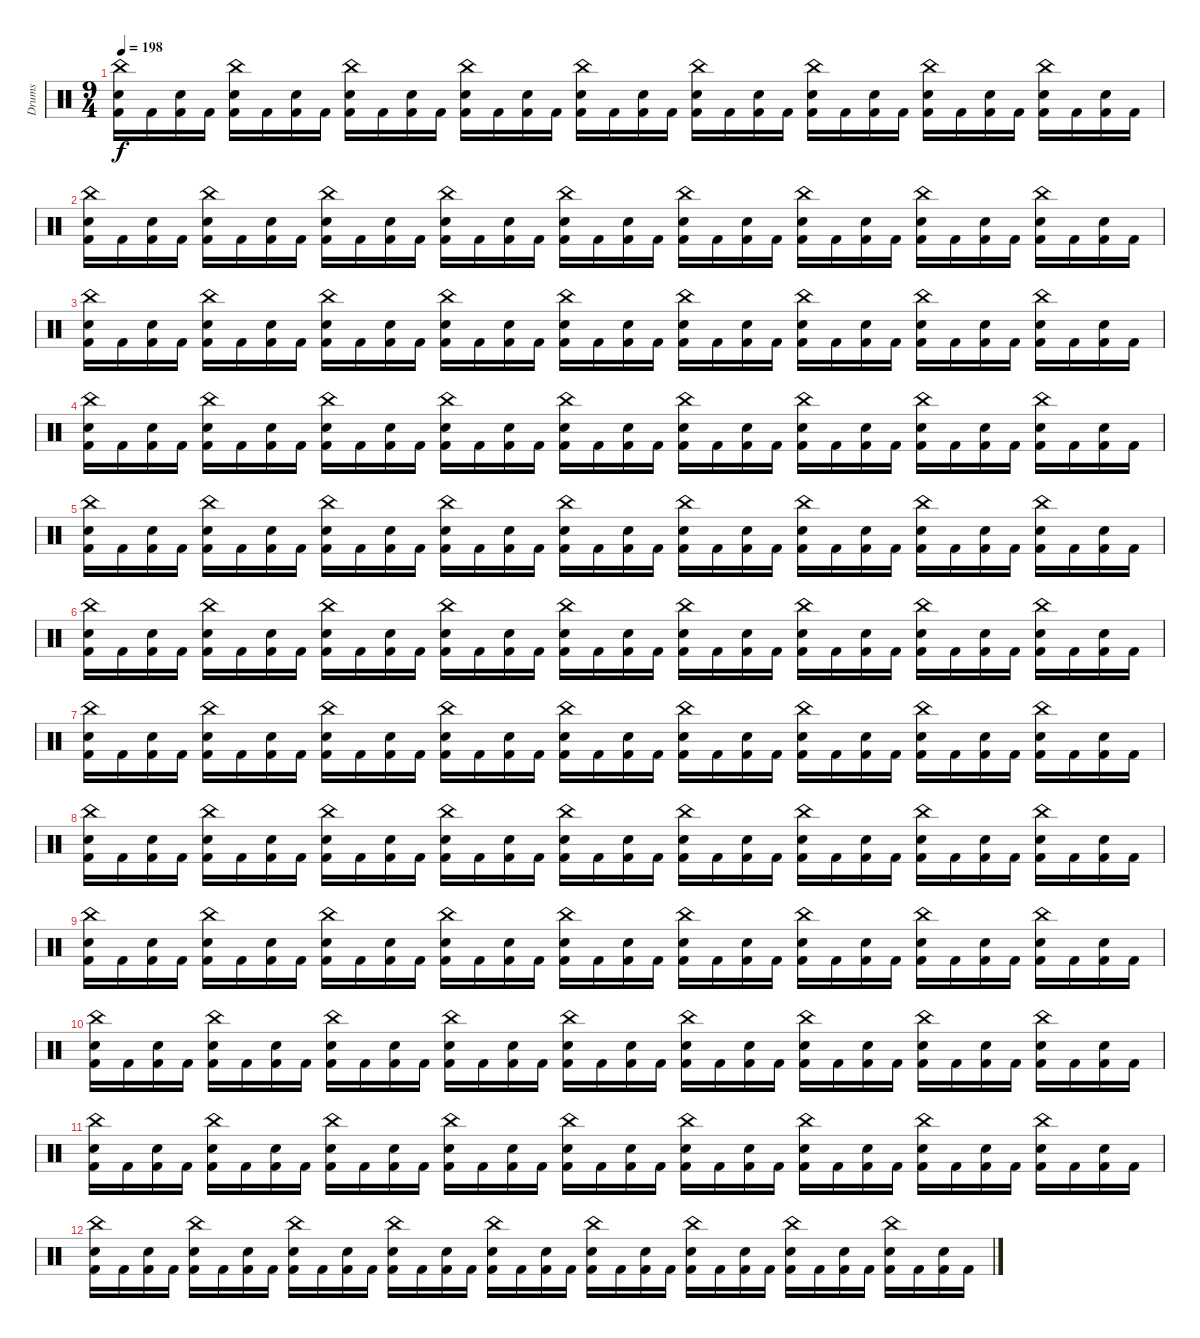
\track ("Drums" "Drums") {instrument percussion}
\staff {score}
\articulation defaults
\ts (9 4)
\tempo 198
\clef neutral
\ks c
("Kick (hit) 2" "Snare (hit) 2" "China (hit)").16{dy f} "Kick (hit) 2".16 ("Kick (hit) 2" "Snare (hit) 2").16 "Kick (hit) 2".16 ("Kick (hit) 2" "Snare (hit) 2" "China (hit)").16 "Kick (hit) 2".16 ("Kick (hit) 2" "Snare (hit) 2").16 "Kick (hit) 2".16 ("Kick (hit) 2" "Snare (hit) 2" "China (hit)").16 "Kick (hit) 2".16 ("Kick (hit) 2" "Snare (hit) 2").16 "Kick (hit) 2".16 ("Kick (hit) 2" "Snare (hit) 2" "China (hit)").16 "Kick (hit) 2".16 ("Kick (hit) 2" "Snare (hit) 2").16 "Kick (hit) 2".16 ("Kick (hit) 2" "Snare (hit) 2" "China (hit)").16 "Kick (hit) 2".16 ("Kick (hit) 2" "Snare (hit) 2").16 "Kick (hit) 2".16 ("Kick (hit) 2" "Snare (hit) 2" "China (hit)").16 "Kick (hit) 2".16 ("Kick (hit) 2" "Snare (hit) 2").16 "Kick (hit) 2".16 ("Kick (hit) 2" "Snare (hit) 2" "China (hit)").16 "Kick (hit) 2".16 ("Kick (hit) 2" "Snare (hit) 2").16 "Kick (hit) 2".16 ("Kick (hit) 2" "Snare (hit) 2" "China (hit)").16 "Kick (hit) 2".16 ("Kick (hit) 2" "Snare (hit) 2").16 "Kick (hit) 2".16 ("Kick (hit) 2" "Snare (hit) 2" "China (hit)").16 "Kick (hit) 2".16 ("Kick (hit) 2" "Snare (hit) 2").16 "Kick (hit) 2".16 |
("Kick (hit) 2" "Snare (hit) 2" "China (hit)").16 "Kick (hit) 2".16 ("Kick (hit) 2" "Snare (hit) 2").16 "Kick (hit) 2".16 ("Kick (hit) 2" "Snare (hit) 2" "China (hit)").16 "Kick (hit) 2".16 ("Kick (hit) 2" "Snare (hit) 2").16 "Kick (hit) 2".16 ("Kick (hit) 2" "Snare (hit) 2" "China (hit)").16 "Kick (hit) 2".16 ("Kick (hit) 2" "Snare (hit) 2").16 "Kick (hit) 2".16 ("Kick (hit) 2" "Snare (hit) 2" "China (hit)").16 "Kick (hit) 2".16 ("Kick (hit) 2" "Snare (hit) 2").16 "Kick (hit) 2".16 ("Kick (hit) 2" "Snare (hit) 2" "China (hit)").16 "Kick (hit) 2".16 ("Kick (hit) 2" "Snare (hit) 2").16 "Kick (hit) 2".16 ("Kick (hit) 2" "Snare (hit) 2" "China (hit)").16 "Kick (hit) 2".16 ("Kick (hit) 2" "Snare (hit) 2").16 "Kick (hit) 2".16 ("Kick (hit) 2" "Snare (hit) 2" "China (hit)").16 "Kick (hit) 2".16 ("Kick (hit) 2" "Snare (hit) 2").16 "Kick (hit) 2".16 ("Kick (hit) 2" "Snare (hit) 2" "China (hit)").16 "Kick (hit) 2".16 ("Kick (hit) 2" "Snare (hit) 2").16 "Kick (hit) 2".16 ("Kick (hit) 2" "Snare (hit) 2" "China (hit)").16 "Kick (hit) 2".16 ("Kick (hit) 2" "Snare (hit) 2").16 "Kick (hit) 2".16 |
("Kick (hit) 2" "Snare (hit) 2" "China (hit)").16 "Kick (hit) 2".16 ("Kick (hit) 2" "Snare (hit) 2").16 "Kick (hit) 2".16 ("Kick (hit) 2" "Snare (hit) 2" "China (hit)").16 "Kick (hit) 2".16 ("Kick (hit) 2" "Snare (hit) 2").16 "Kick (hit) 2".16 ("Kick (hit) 2" "Snare (hit) 2" "China (hit)").16 "Kick (hit) 2".16 ("Kick (hit) 2" "Snare (hit) 2").16 "Kick (hit) 2".16 ("Kick (hit) 2" "Snare (hit) 2" "China (hit)").16 "Kick (hit) 2".16 ("Kick (hit) 2" "Snare (hit) 2").16 "Kick (hit) 2".16 ("Kick (hit) 2" "Snare (hit) 2" "China (hit)").16 "Kick (hit) 2".16 ("Kick (hit) 2" "Snare (hit) 2").16 "Kick (hit) 2".16 ("Kick (hit) 2" "Snare (hit) 2" "China (hit)").16 "Kick (hit) 2".16 ("Kick (hit) 2" "Snare (hit) 2").16 "Kick (hit) 2".16 ("Kick (hit) 2" "Snare (hit) 2" "China (hit)").16 "Kick (hit) 2".16 ("Kick (hit) 2" "Snare (hit) 2").16 "Kick (hit) 2".16 ("Kick (hit) 2" "Snare (hit) 2" "China (hit)").16 "Kick (hit) 2".16 ("Kick (hit) 2" "Snare (hit) 2").16 "Kick (hit) 2".16 ("Kick (hit) 2" "Snare (hit) 2" "China (hit)").16 "Kick (hit) 2".16 ("Kick (hit) 2" "Snare (hit) 2").16 "Kick (hit) 2".16 |
("Kick (hit) 2" "Snare (hit) 2" "China (hit)").16 "Kick (hit) 2".16 ("Kick (hit) 2" "Snare (hit) 2").16 "Kick (hit) 2".16 ("Kick (hit) 2" "Snare (hit) 2" "China (hit)").16 "Kick (hit) 2".16 ("Kick (hit) 2" "Snare (hit) 2").16 "Kick (hit) 2".16 ("Kick (hit) 2" "Snare (hit) 2" "China (hit)").16 "Kick (hit) 2".16 ("Kick (hit) 2" "Snare (hit) 2").16 "Kick (hit) 2".16 ("Kick (hit) 2" "Snare (hit) 2" "China (hit)").16 "Kick (hit) 2".16 ("Kick (hit) 2" "Snare (hit) 2").16 "Kick (hit) 2".16 ("Kick (hit) 2" "Snare (hit) 2" "China (hit)").16 "Kick (hit) 2".16 ("Kick (hit) 2" "Snare (hit) 2").16 "Kick (hit) 2".16 ("Kick (hit) 2" "Snare (hit) 2" "China (hit)").16 "Kick (hit) 2".16 ("Kick (hit) 2" "Snare (hit) 2").16 "Kick (hit) 2".16 ("Kick (hit) 2" "Snare (hit) 2" "China (hit)").16 "Kick (hit) 2".16 ("Kick (hit) 2" "Snare (hit) 2").16 "Kick (hit) 2".16 ("Kick (hit) 2" "Snare (hit) 2" "China (hit)").16 "Kick (hit) 2".16 ("Kick (hit) 2" "Snare (hit) 2").16 "Kick (hit) 2".16 ("Kick (hit) 2" "Snare (hit) 2" "China (hit)").16 "Kick (hit) 2".16 ("Kick (hit) 2" "Snare (hit) 2").16 "Kick (hit) 2".16 |
("Kick (hit) 2" "Snare (hit) 2" "China (hit)").16 "Kick (hit) 2".16 ("Kick (hit) 2" "Snare (hit) 2").16 "Kick (hit) 2".16 ("Kick (hit) 2" "Snare (hit) 2" "China (hit)").16 "Kick (hit) 2".16 ("Kick (hit) 2" "Snare (hit) 2").16 "Kick (hit) 2".16 ("Kick (hit) 2" "Snare (hit) 2" "China (hit)").16 "Kick (hit) 2".16 ("Kick (hit) 2" "Snare (hit) 2").16 "Kick (hit) 2".16 ("Kick (hit) 2" "Snare (hit) 2" "China (hit)").16 "Kick (hit) 2".16 ("Kick (hit) 2" "Snare (hit) 2").16 "Kick (hit) 2".16 ("Kick (hit) 2" "Snare (hit) 2" "China (hit)").16 "Kick (hit) 2".16 ("Kick (hit) 2" "Snare (hit) 2").16 "Kick (hit) 2".16 ("Kick (hit) 2" "Snare (hit) 2" "China (hit)").16 "Kick (hit) 2".16 ("Kick (hit) 2" "Snare (hit) 2").16 "Kick (hit) 2".16 ("Kick (hit) 2" "Snare (hit) 2" "China (hit)").16 "Kick (hit) 2".16 ("Kick (hit) 2" "Snare (hit) 2").16 "Kick (hit) 2".16 ("Kick (hit) 2" "Snare (hit) 2" "China (hit)").16 "Kick (hit) 2".16 ("Kick (hit) 2" "Snare (hit) 2").16 "Kick (hit) 2".16 ("Kick (hit) 2" "Snare (hit) 2" "China (hit)").16 "Kick (hit) 2".16 ("Kick (hit) 2" "Snare (hit) 2").16 "Kick (hit) 2".16 |
("Kick (hit) 2" "Snare (hit) 2" "China (hit)").16 "Kick (hit) 2".16 ("Kick (hit) 2" "Snare (hit) 2").16 "Kick (hit) 2".16 ("Kick (hit) 2" "Snare (hit) 2" "China (hit)").16 "Kick (hit) 2".16 ("Kick (hit) 2" "Snare (hit) 2").16 "Kick (hit) 2".16 ("Kick (hit) 2" "Snare (hit) 2" "China (hit)").16 "Kick (hit) 2".16 ("Kick (hit) 2" "Snare (hit) 2").16 "Kick (hit) 2".16 ("Kick (hit) 2" "Snare (hit) 2" "China (hit)").16 "Kick (hit) 2".16 ("Kick (hit) 2" "Snare (hit) 2").16 "Kick (hit) 2".16 ("Kick (hit) 2" "Snare (hit) 2" "China (hit)").16 "Kick (hit) 2".16 ("Kick (hit) 2" "Snare (hit) 2").16 "Kick (hit) 2".16 ("Kick (hit) 2" "Snare (hit) 2" "China (hit)").16 "Kick (hit) 2".16 ("Kick (hit) 2" "Snare (hit) 2").16 "Kick (hit) 2".16 ("Kick (hit) 2" "Snare (hit) 2" "China (hit)").16 "Kick (hit) 2".16 ("Kick (hit) 2" "Snare (hit) 2").16 "Kick (hit) 2".16 ("Kick (hit) 2" "Snare (hit) 2" "China (hit)").16 "Kick (hit) 2".16 ("Kick (hit) 2" "Snare (hit) 2").16 "Kick (hit) 2".16 ("Kick (hit) 2" "Snare (hit) 2" "China (hit)").16 "Kick (hit) 2".16 ("Kick (hit) 2" "Snare (hit) 2").16 "Kick (hit) 2".16 |
("Kick (hit) 2" "Snare (hit) 2" "China (hit)").16 "Kick (hit) 2".16 ("Kick (hit) 2" "Snare (hit) 2").16 "Kick (hit) 2".16 ("Kick (hit) 2" "Snare (hit) 2" "China (hit)").16 "Kick (hit) 2".16 ("Kick (hit) 2" "Snare (hit) 2").16 "Kick (hit) 2".16 ("Kick (hit) 2" "Snare (hit) 2" "China (hit)").16 "Kick (hit) 2".16 ("Kick (hit) 2" "Snare (hit) 2").16 "Kick (hit) 2".16 ("Kick (hit) 2" "Snare (hit) 2" "China (hit)").16 "Kick (hit) 2".16 ("Kick (hit) 2" "Snare (hit) 2").16 "Kick (hit) 2".16 ("Kick (hit) 2" "Snare (hit) 2" "China (hit)").16 "Kick (hit) 2".16 ("Kick (hit) 2" "Snare (hit) 2").16 "Kick (hit) 2".16 ("Kick (hit) 2" "Snare (hit) 2" "China (hit)").16 "Kick (hit) 2".16 ("Kick (hit) 2" "Snare (hit) 2").16 "Kick (hit) 2".16 ("Kick (hit) 2" "Snare (hit) 2" "China (hit)").16 "Kick (hit) 2".16 ("Kick (hit) 2" "Snare (hit) 2").16 "Kick (hit) 2".16 ("Kick (hit) 2" "Snare (hit) 2" "China (hit)").16 "Kick (hit) 2".16 ("Kick (hit) 2" "Snare (hit) 2").16 "Kick (hit) 2".16 ("Kick (hit) 2" "Snare (hit) 2" "China (hit)").16 "Kick (hit) 2".16 ("Kick (hit) 2" "Snare (hit) 2").16 "Kick (hit) 2".16 |
("Kick (hit) 2" "Snare (hit) 2" "China (hit)").16 "Kick (hit) 2".16 ("Kick (hit) 2" "Snare (hit) 2").16 "Kick (hit) 2".16 ("Kick (hit) 2" "Snare (hit) 2" "China (hit)").16 "Kick (hit) 2".16 ("Kick (hit) 2" "Snare (hit) 2").16 "Kick (hit) 2".16 ("Kick (hit) 2" "Snare (hit) 2" "China (hit)").16 "Kick (hit) 2".16 ("Kick (hit) 2" "Snare (hit) 2").16 "Kick (hit) 2".16 ("Kick (hit) 2" "Snare (hit) 2" "China (hit)").16 "Kick (hit) 2".16 ("Kick (hit) 2" "Snare (hit) 2").16 "Kick (hit) 2".16 ("Kick (hit) 2" "Snare (hit) 2" "China (hit)").16 "Kick (hit) 2".16 ("Kick (hit) 2" "Snare (hit) 2").16 "Kick (hit) 2".16 ("Kick (hit) 2" "Snare (hit) 2" "China (hit)").16 "Kick (hit) 2".16 ("Kick (hit) 2" "Snare (hit) 2").16 "Kick (hit) 2".16 ("Kick (hit) 2" "Snare (hit) 2" "China (hit)").16 "Kick (hit) 2".16 ("Kick (hit) 2" "Snare (hit) 2").16 "Kick (hit) 2".16 ("Kick (hit) 2" "Snare (hit) 2" "China (hit)").16 "Kick (hit) 2".16 ("Kick (hit) 2" "Snare (hit) 2").16 "Kick (hit) 2".16 ("Kick (hit) 2" "Snare (hit) 2" "China (hit)").16 "Kick (hit) 2".16 ("Kick (hit) 2" "Snare (hit) 2").16 "Kick (hit) 2".16 |
("Kick (hit) 2" "Snare (hit) 2" "China (hit)").16 "Kick (hit) 2".16 ("Kick (hit) 2" "Snare (hit) 2").16 "Kick (hit) 2".16 ("Kick (hit) 2" "Snare (hit) 2" "China (hit)").16 "Kick (hit) 2".16 ("Kick (hit) 2" "Snare (hit) 2").16 "Kick (hit) 2".16 ("Kick (hit) 2" "Snare (hit) 2" "China (hit)").16 "Kick (hit) 2".16 ("Kick (hit) 2" "Snare (hit) 2").16 "Kick (hit) 2".16 ("Kick (hit) 2" "Snare (hit) 2" "China (hit)").16 "Kick (hit) 2".16 ("Kick (hit) 2" "Snare (hit) 2").16 "Kick (hit) 2".16 ("Kick (hit) 2" "Snare (hit) 2" "China (hit)").16 "Kick (hit) 2".16 ("Kick (hit) 2" "Snare (hit) 2").16 "Kick (hit) 2".16 ("Kick (hit) 2" "Snare (hit) 2" "China (hit)").16 "Kick (hit) 2".16 ("Kick (hit) 2" "Snare (hit) 2").16 "Kick (hit) 2".16 ("Kick (hit) 2" "Snare (hit) 2" "China (hit)").16 "Kick (hit) 2".16 ("Kick (hit) 2" "Snare (hit) 2").16 "Kick (hit) 2".16 ("Kick (hit) 2" "Snare (hit) 2" "China (hit)").16 "Kick (hit) 2".16 ("Kick (hit) 2" "Snare (hit) 2").16 "Kick (hit) 2".16 ("Kick (hit) 2" "Snare (hit) 2" "China (hit)").16 "Kick (hit) 2".16 ("Kick (hit) 2" "Snare (hit) 2").16 "Kick (hit) 2".16 |
("Kick (hit) 2" "Snare (hit) 2" "China (hit)").16 "Kick (hit) 2".16 ("Kick (hit) 2" "Snare (hit) 2").16 "Kick (hit) 2".16 ("Kick (hit) 2" "Snare (hit) 2" "China (hit)").16 "Kick (hit) 2".16 ("Kick (hit) 2" "Snare (hit) 2").16 "Kick (hit) 2".16 ("Kick (hit) 2" "Snare (hit) 2" "China (hit)").16 "Kick (hit) 2".16 ("Kick (hit) 2" "Snare (hit) 2").16 "Kick (hit) 2".16 ("Kick (hit) 2" "Snare (hit) 2" "China (hit)").16 "Kick (hit) 2".16 ("Kick (hit) 2" "Snare (hit) 2").16 "Kick (hit) 2".16 ("Kick (hit) 2" "Snare (hit) 2" "China (hit)").16 "Kick (hit) 2".16 ("Kick (hit) 2" "Snare (hit) 2").16 "Kick (hit) 2".16 ("Kick (hit) 2" "Snare (hit) 2" "China (hit)").16 "Kick (hit) 2".16 ("Kick (hit) 2" "Snare (hit) 2").16 "Kick (hit) 2".16 ("Kick (hit) 2" "Snare (hit) 2" "China (hit)").16 "Kick (hit) 2".16 ("Kick (hit) 2" "Snare (hit) 2").16 "Kick (hit) 2".16 ("Kick (hit) 2" "Snare (hit) 2" "China (hit)").16 "Kick (hit) 2".16 ("Kick (hit) 2" "Snare (hit) 2").16 "Kick (hit) 2".16 ("Kick (hit) 2" "Snare (hit) 2" "China (hit)").16 "Kick (hit) 2".16 ("Kick (hit) 2" "Snare (hit) 2").16 "Kick (hit) 2".16 |
("Kick (hit) 2" "Snare (hit) 2" "China (hit)").16 "Kick (hit) 2".16 ("Kick (hit) 2" "Snare (hit) 2").16 "Kick (hit) 2".16 ("Kick (hit) 2" "Snare (hit) 2" "China (hit)").16 "Kick (hit) 2".16 ("Kick (hit) 2" "Snare (hit) 2").16 "Kick (hit) 2".16 ("Kick (hit) 2" "Snare (hit) 2" "China (hit)").16 "Kick (hit) 2".16 ("Kick (hit) 2" "Snare (hit) 2").16 "Kick (hit) 2".16 ("Kick (hit) 2" "Snare (hit) 2" "China (hit)").16 "Kick (hit) 2".16 ("Kick (hit) 2" "Snare (hit) 2").16 "Kick (hit) 2".16 ("Kick (hit) 2" "Snare (hit) 2" "China (hit)").16 "Kick (hit) 2".16 ("Kick (hit) 2" "Snare (hit) 2").16 "Kick (hit) 2".16 ("Kick (hit) 2" "Snare (hit) 2" "China (hit)").16 "Kick (hit) 2".16 ("Kick (hit) 2" "Snare (hit) 2").16 "Kick (hit) 2".16 ("Kick (hit) 2" "Snare (hit) 2" "China (hit)").16 "Kick (hit) 2".16 ("Kick (hit) 2" "Snare (hit) 2").16 "Kick (hit) 2".16 ("Kick (hit) 2" "Snare (hit) 2" "China (hit)").16 "Kick (hit) 2".16 ("Kick (hit) 2" "Snare (hit) 2").16 "Kick (hit) 2".16 ("Kick (hit) 2" "Snare (hit) 2" "China (hit)").16 "Kick (hit) 2".16 ("Kick (hit) 2" "Snare (hit) 2").16 "Kick (hit) 2".16 |
("Kick (hit) 2" "Snare (hit) 2" "China (hit)").16 "Kick (hit) 2".16 ("Kick (hit) 2" "Snare (hit) 2").16 "Kick (hit) 2".16 ("Kick (hit) 2" "Snare (hit) 2" "China (hit)").16 "Kick (hit) 2".16 ("Kick (hit) 2" "Snare (hit) 2").16 "Kick (hit) 2".16 ("Kick (hit) 2" "Snare (hit) 2" "China (hit)").16 "Kick (hit) 2".16 ("Kick (hit) 2" "Snare (hit) 2").16 "Kick (hit) 2".16 ("Kick (hit) 2" "Snare (hit) 2" "China (hit)").16 "Kick (hit) 2".16 ("Kick (hit) 2" "Snare (hit) 2").16 "Kick (hit) 2".16 ("Kick (hit) 2" "Snare (hit) 2" "China (hit)").16 "Kick (hit) 2".16 ("Kick (hit) 2" "Snare (hit) 2").16 "Kick (hit) 2".16 ("Kick (hit) 2" "Snare (hit) 2" "China (hit)").16 "Kick (hit) 2".16 ("Kick (hit) 2" "Snare (hit) 2").16 "Kick (hit) 2".16 ("Kick (hit) 2" "Snare (hit) 2" "China (hit)").16 "Kick (hit) 2".16 ("Kick (hit) 2" "Snare (hit) 2").16 "Kick (hit) 2".16 ("Kick (hit) 2" "Snare (hit) 2" "China (hit)").16 "Kick (hit) 2".16 ("Kick (hit) 2" "Snare (hit) 2").16 "Kick (hit) 2".16 ("Kick (hit) 2" "Snare (hit) 2" "China (hit)").16 "Kick (hit) 2".16 ("Kick (hit) 2" "Snare (hit) 2").16 "Kick (hit) 2".16
